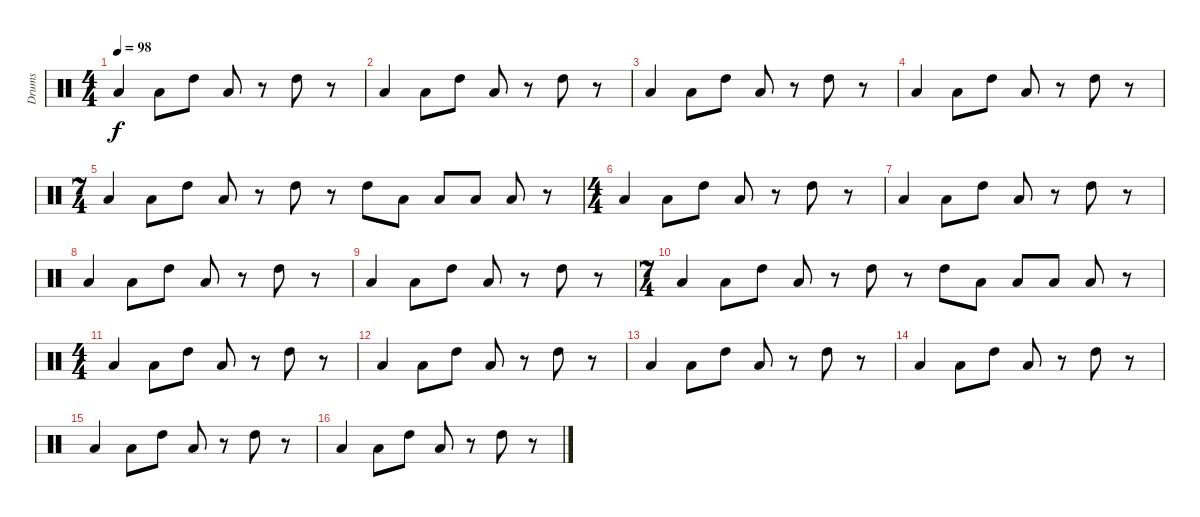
\track ("Drums" "Drums") {instrument percussion}
\staff {score}
\articulation defaults
\ts (4 4)
\tempo 98
\clef neutral
\ks c "Low Floor Tom (hit)".4{dy f} "Low Tom (hit)".8 "High Tom (hit)".8 "Low Floor Tom (hit)".8
r.8 "High Tom (hit)".8 r.8 |
"Low Floor Tom (hit)".4 "Low Tom (hit)".8 "High Tom (hit)".8 "Low Floor Tom (hit)".8 r.8 "High Tom (hit)".8 r.8 |
"Low Floor Tom (hit)".4 "Low Tom (hit)".8 "High Tom (hit)".8 "Low Floor Tom (hit)".8 r.8 "High Tom (hit)".8 r.8 |
"Low Floor Tom (hit)".4 "Low Tom (hit)".8 "High Tom (hit)".8 "Low Floor Tom (hit)".8 r.8 "High Tom (hit)".8 r.8 |
\ts (7 4)
"Low Floor Tom (hit)".4 "Low Tom (hit)".8 "High Tom (hit)".8 "Low Floor Tom (hit)".8 r.8 "High Tom (hit)".8 r.8 "High Tom (hit)".8 "Low Floor Tom (hit)".8 "Low Floor Tom (hit)".8 "Low Tom (hit)".8 "Low Tom (hit)".8 r.8 |
\ts (4 4)
"Low Floor Tom (hit)".4 "Low Tom (hit)".8 "High Tom (hit)".8 "Low Floor Tom (hit)".8 r.8 "High Tom (hit)".8 r.8 |
"Low Floor Tom (hit)".4 "Low Tom (hit)".8 "High Tom (hit)".8 "Low Floor Tom (hit)".8 r.8 "High Tom (hit)".8 r.8 |
"Low Floor Tom (hit)".4 "Low Tom (hit)".8 "High Tom (hit)".8 "Low Floor Tom (hit)".8 r.8 "High Tom (hit)".8 r.8 |
"Low Floor Tom (hit)".4 "Low Tom (hit)".8 "High Tom (hit)".8 "Low Floor Tom (hit)".8 r.8 "High Tom (hit)".8 r.8 |
\ts (7 4)
"Low Floor Tom (hit)".4 "Low Tom (hit)".8 "High Tom (hit)".8 "Low Floor Tom (hit)".8 r.8 "High Tom (hit)".8 r.8 "High Tom (hit)".8 "Low Floor Tom (hit)".8 "Low Floor Tom (hit)".8 "Low Tom (hit)".8 "Low Tom (hit)".8 r.8 |
\ts (4 4)
"Low Floor Tom (hit)".4 "Low Tom (hit)".8 "High Tom (hit)".8 "Low Floor Tom (hit)".8 r.8 "High Tom (hit)".8 r.8 |
"Low Floor Tom (hit)".4 "Low Tom (hit)".8 "High Tom (hit)".8 "Low Floor Tom (hit)".8 r.8 "High Tom (hit)".8 r.8 |
"Low Floor Tom (hit)".4 "Low Tom (hit)".8 "High Tom (hit)".8 "Low Floor Tom (hit)".8 r.8 "High Tom (hit)".8 r.8 |
"Low Floor Tom (hit)".4 "Low Tom (hit)".8 "High Tom (hit)".8 "Low Floor Tom (hit)".8 r.8 "High Tom (hit)".8 r.8 |
"Low Floor Tom (hit)".4 "Low Tom (hit)".8 "High Tom (hit)".8 "Low Floor Tom (hit)".8 r.8 "High Tom (hit)".8 r.8 |
"Low Floor Tom (hit)".4 "Low Tom (hit)".8 "High Tom (hit)".8 "Low Floor Tom (hit)".8 r.8 "High Tom (hit)".8 r.8
